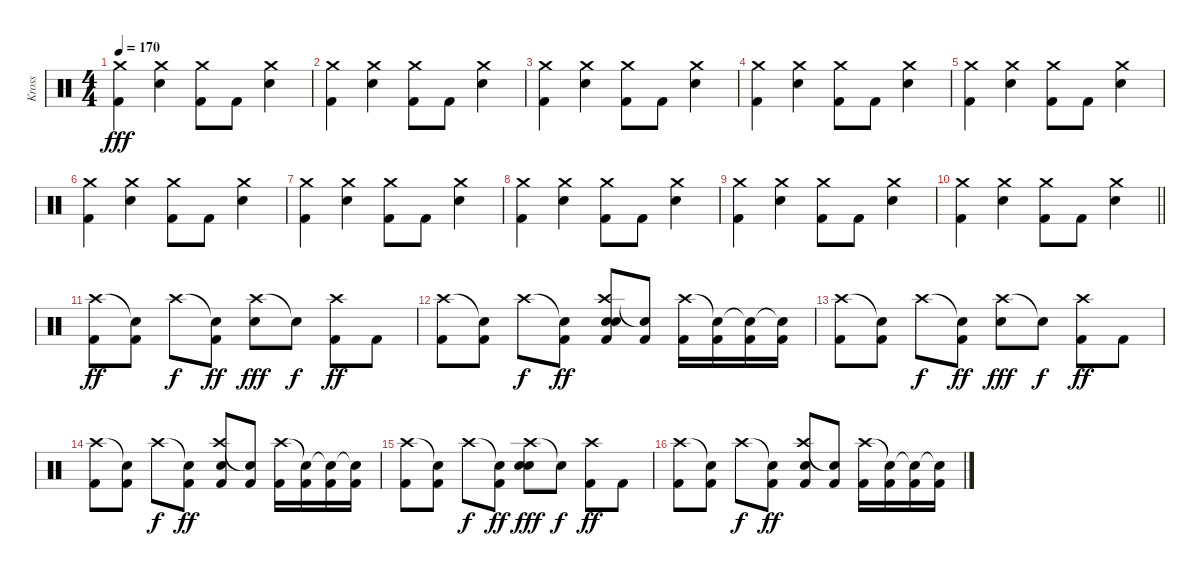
\track ("Kross" "Kross") {instrument percussion}
\staff {score}
\articulation defaults
\ts (4 4)
\tempo 170
\clef neutral
\ks c
("Crash medium (hit)" "Kick (hit) 2").4{dy fff} ("Crash medium (hit)" "Snare (hit) 2").4 ("Crash medium (hit)" "Kick (hit) 2").8 "Kick (hit) 2".8 ("Crash medium (hit)" "Snare (hit) 2").4 |
("Crash medium (hit)" "Kick (hit) 2").4 ("Crash medium (hit)" "Snare (hit) 2").4 ("Crash medium (hit)" "Kick (hit) 2").8 "Kick (hit) 2".8 ("Crash medium (hit)" "Snare (hit) 2").4 |
("Crash medium (hit)" "Kick (hit) 2").4 ("Crash medium (hit)" "Snare (hit) 2").4 ("Crash medium (hit)" "Kick (hit) 2").8 "Kick (hit) 2".8 ("Crash medium (hit)" "Snare (hit) 2").4 |
("Crash medium (hit)" "Kick (hit) 2").4 ("Crash medium (hit)" "Snare (hit) 2").4 ("Crash medium (hit)" "Kick (hit) 2").8 "Kick (hit) 2".8 ("Crash medium (hit)" "Snare (hit) 2").4 |
("Crash medium (hit)" "Kick (hit) 2").4 ("Crash medium (hit)" "Snare (hit) 2").4 ("Crash medium (hit)" "Kick (hit) 2").8 "Kick (hit) 2".8 ("Crash medium (hit)" "Snare (hit) 2").4 |
("Crash medium (hit)" "Kick (hit) 2").4 ("Crash medium (hit)" "Snare (hit) 2").4 ("Crash medium (hit)" "Kick (hit) 2").8 "Kick (hit) 2".8 ("Crash medium (hit)" "Snare (hit) 2").4 |
("Crash medium (hit)" "Kick (hit) 2").4 ("Crash medium (hit)" "Snare (hit) 2").4 ("Crash medium (hit)" "Kick (hit) 2").8 "Kick (hit) 2".8 ("Crash medium (hit)" "Snare (hit) 2").4 |
("Crash medium (hit)" "Kick (hit) 2").4 ("Crash medium (hit)" "Snare (hit) 2").4 ("Crash medium (hit)" "Kick (hit) 2").8 "Kick (hit) 2".8 ("Crash medium (hit)" "Snare (hit) 2").4 |
("Crash medium (hit)" "Kick (hit) 2").4 ("Crash medium (hit)" "Snare (hit) 2").4 ("Crash medium (hit)" "Kick (hit) 2").8 "Kick (hit) 2".8 ("Crash medium (hit)" "Snare (hit) 2").4 |
\barLineRight lightlight
("Crash medium (hit)" "Kick (hit) 2").4 ("Crash medium (hit)" "Snare (hit) 2").4 ("Crash medium (hit)" "Kick (hit) 2").8 "Kick (hit) 2".8 ("Crash medium (hit)" "Snare (hit) 2").4 |
("Crash high (hit)" "Kick (hit) 2").8{dy ff} ("Snare (hit)"{t} "Kick (hit) 2").8 "Crash high (hit)".8{dy f} ("Snare (hit)"{t} "Kick (hit) 2").8{dy ff} ("Crash high (hit)" "Electric Snare (hit)").8{dy fff} "Snare (hit)"{t}.8{dy f} ("Crash high (hit)" "Kick (hit) 2").8{dy ff} "Kick (hit) 2".8 |
("Crash high (hit)" "Kick (hit) 2").8 ("Snare (hit)"{t} "Kick (hit) 2").8 "Crash high (hit)".8{dy f} ("Snare (hit)"{t} "Kick (hit) 2").8{dy ff} ("Crash high (hit)" "Electric Snare (hit)" "Snare (hit) 2" "Kick (hit) 2").8 ("Snare (hit)"{t} "Kick (hit) 2").8 ("Crash high (hit)" "Kick (hit) 2").16 ("Snare (hit)"{t} "Kick (hit) 2").16 ("Snare (hit)"{t} "Kick (hit) 2").16 ("Snare (hit)"{t} "Kick (hit) 2").16 |
("Crash high (hit)" "Kick (hit) 2").8 ("Snare (hit)"{t} "Kick (hit) 2").8 "Crash high (hit)".8{dy f} ("Snare (hit)"{t} "Kick (hit) 2").8{dy ff} ("Crash high (hit)" "Electric Snare (hit)").8{dy fff} "Snare (hit)"{t}.8{dy f} ("Crash high (hit)" "Kick (hit) 2").8{dy ff} "Kick (hit) 2".8 |
("Crash high (hit)" "Kick (hit) 2").8 ("Snare (hit)"{t} "Kick (hit) 2").8 "Crash high (hit)".8{dy f} ("Snare (hit)"{t} "Kick (hit) 2").8{dy ff} ("Crash high (hit)" "Electric Snare (hit)" "Kick (hit) 2").8 ("Snare (hit)"{t} "Kick (hit) 2").8 ("Crash high (hit)" "Kick (hit) 2").16 ("Snare (hit)"{t} "Kick (hit) 2").16 ("Snare (hit)"{t} "Kick (hit) 2").16 ("Snare (hit)"{t} "Kick (hit) 2").16 |
("Crash high (hit)" "Kick (hit) 2").8 ("Snare (hit)"{t} "Kick (hit) 2").8 "Crash high (hit)".8{dy f} ("Snare (hit)"{t} "Kick (hit) 2").8{dy ff} ("Crash high (hit)" "Electric Snare (hit)" "Snare (hit) 2").8{dy fff} "Snare (hit)"{t}.8{dy f} ("Crash high (hit)" "Kick (hit) 2").8{dy ff} "Kick (hit) 2".8 |
("Crash high (hit)" "Kick (hit) 2").8 ("Snare (hit)"{t} "Kick (hit) 2").8 "Crash high (hit)".8{dy f} ("Snare (hit)"{t} "Kick (hit) 2").8{dy ff} ("Crash high (hit)" "Electric Snare (hit)" "Kick (hit) 2").8 ("Snare (hit)"{t} "Kick (hit) 2").8 ("Crash high (hit)" "Kick (hit) 2").16 ("Snare (hit)"{t} "Kick (hit) 2").16 ("Snare (hit)"{t} "Kick (hit) 2").16 ("Snare (hit)"{t} "Kick (hit) 2").16
